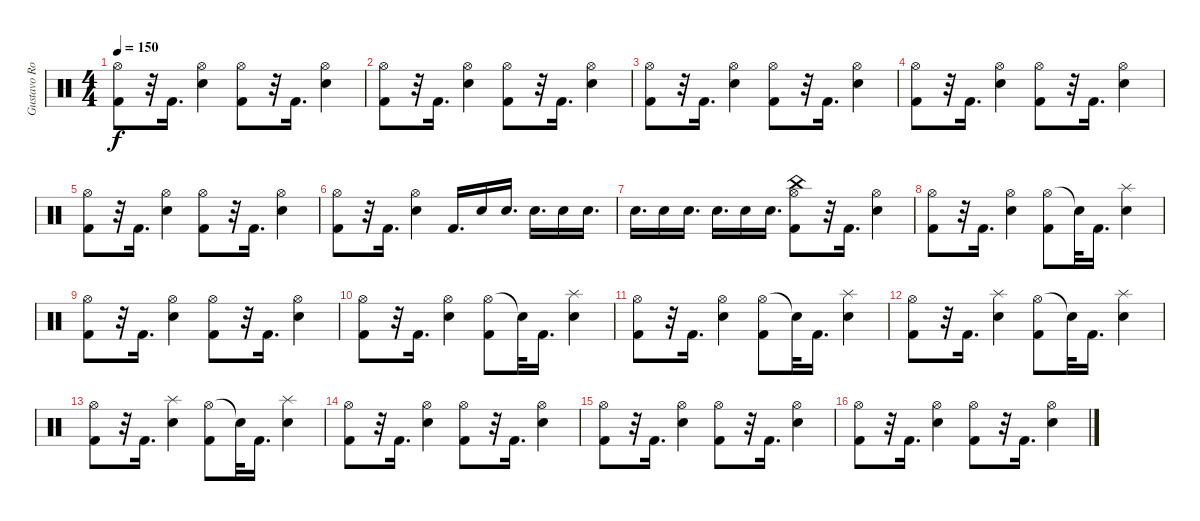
\track ("Gustavo Rowek" "Gustavo Ro") {instrument percussion}
\staff {score}
\articulation defaults
\ts (4 4)
\tempo 150
\clef neutral
\ks c
("Hi-Hat (open)" "Kick (hit) 2").8{dy f} r.32 "Kick (hit) 2".16{d} ("Hi-Hat (open)" "Electric Snare (hit)").4 ("Hi-Hat (open)" "Kick (hit) 2").8 r.32 "Kick (hit) 2".16{d} ("Hi-Hat (open)" "Electric Snare (hit)").4 |
("Hi-Hat (open)" "Kick (hit) 2").8 r.32 "Kick (hit) 2".16{d} ("Hi-Hat (open)" "Electric Snare (hit)").4 ("Hi-Hat (open)" "Kick (hit) 2").8 r.32 "Kick (hit) 2".16{d} ("Hi-Hat (open)" "Electric Snare (hit)").4 |
("Hi-Hat (open)" "Kick (hit) 2").8 r.32 "Kick (hit) 2".16{d} ("Hi-Hat (open)" "Electric Snare (hit)").4 ("Hi-Hat (open)" "Kick (hit) 2").8 r.32 "Kick (hit) 2".16{d} ("Hi-Hat (open)" "Electric Snare (hit)").4 |
("Hi-Hat (open)" "Kick (hit) 2").8 r.32 "Kick (hit) 2".16{d} ("Hi-Hat (open)" "Electric Snare (hit)").4 ("Hi-Hat (open)" "Kick (hit) 2").8 r.32 "Kick (hit) 2".16{d} ("Hi-Hat (open)" "Electric Snare (hit)").4 |
("Hi-Hat (open)" "Kick (hit) 2").8 r.32 "Kick (hit) 2".16{d} ("Hi-Hat (open)" "Electric Snare (hit)").4 ("Hi-Hat (open)" "Kick (hit) 2").8 r.32 "Kick (hit) 2".16{d} ("Hi-Hat (open)" "Electric Snare (hit)").4 |
("Hi-Hat (open)" "Kick (hit) 2").8 r.32 "Kick (hit) 2".16{d} ("Hi-Hat (open)" "Electric Snare (hit)").4 "Kick (hit) 2".16{d} "Electric Snare (hit)".16 "Electric Snare (hit)".16{d} "Electric Snare (hit)".16{d} "Electric Snare (hit)".16 "Electric Snare (hit)".16{d} |
"Electric Snare (hit)".16{d} "Electric Snare (hit)".16 "Electric Snare (hit)".16{d} "Electric Snare (hit)".16{d} "Electric Snare (hit)".16 "Electric Snare (hit)".16{d} ("China (hit)" "Hi-Hat (open)" "Kick (hit) 2").8 r.32 "Kick (hit) 2".16{d} ("Hi-Hat (open)" "Electric Snare (hit)").4 |
("Hi-Hat (open)" "Kick (hit) 2").8 r.32 "Kick (hit) 2".16{d} ("Hi-Hat (open)" "Electric Snare (hit)").4 ("Hi-Hat (open)" "Kick (hit) 2").8 "Snare (hit)"{t}.32 "Kick (hit) 2".16{d} ("Splash (hit)" "Electric Snare (hit)").4 |
("Hi-Hat (open)" "Kick (hit) 2").8 r.32 "Kick (hit) 2".16{d} ("Hi-Hat (open)" "Electric Snare (hit)").4 ("Hi-Hat (open)" "Kick (hit) 2").8 r.32 "Kick (hit) 2".16{d} ("Hi-Hat (open)" "Electric Snare (hit)").4 |
("Hi-Hat (open)" "Kick (hit) 2").8 r.32 "Kick (hit) 2".16{d} ("Hi-Hat (open)" "Electric Snare (hit)").4 ("Hi-Hat (open)" "Kick (hit) 2").8 "Snare (hit)"{t}.32 "Kick (hit) 2".16{d} ("Splash (hit)" "Electric Snare (hit)").4 |
("Hi-Hat (open)" "Kick (hit) 2").8 r.32 "Kick (hit) 2".16{d} ("Hi-Hat (open)" "Electric Snare (hit)").4 ("Hi-Hat (open)" "Kick (hit) 2").8 "Snare (hit)"{t}.32 "Kick (hit) 2".16{d} ("Splash (hit)" "Electric Snare (hit)").4 |
("Hi-Hat (open)" "Kick (hit) 2").8 r.32 "Kick (hit) 2".16{d} ("Splash (hit)" "Electric Snare (hit)").4 ("Hi-Hat (open)" "Kick (hit) 2").8 "Snare (hit)"{t}.32 "Kick (hit) 2".16{d} ("Splash (hit)" "Electric Snare (hit)").4 |
("Hi-Hat (open)" "Kick (hit) 2").8 r.32 "Kick (hit) 2".16{d} ("Splash (hit)" "Electric Snare (hit)").4 ("Hi-Hat (open)" "Kick (hit) 2").8 "Snare (hit)"{t}.32 "Kick (hit) 2".16{d} ("Splash (hit)" "Electric Snare (hit)").4 |
("Hi-Hat (open)" "Kick (hit) 2").8 r.32 "Kick (hit) 2".16{d} ("Hi-Hat (open)" "Electric Snare (hit)").4 ("Hi-Hat (open)" "Kick (hit) 2").8 r.32 "Kick (hit) 2".16{d} ("Hi-Hat (open)" "Electric Snare (hit)").4 |
("Hi-Hat (open)" "Kick (hit) 2").8 r.32 "Kick (hit) 2".16{d} ("Hi-Hat (open)" "Electric Snare (hit)").4 ("Hi-Hat (open)" "Kick (hit) 2").8 r.32 "Kick (hit) 2".16{d} ("Hi-Hat (open)" "Electric Snare (hit)").4 |
("Hi-Hat (open)" "Kick (hit) 2").8 r.32 "Kick (hit) 2".16{d} ("Hi-Hat (open)" "Electric Snare (hit)").4 ("Hi-Hat (open)" "Kick (hit) 2").8 r.32 "Kick (hit) 2".16{d} ("Hi-Hat (open)" "Electric Snare (hit)").4
